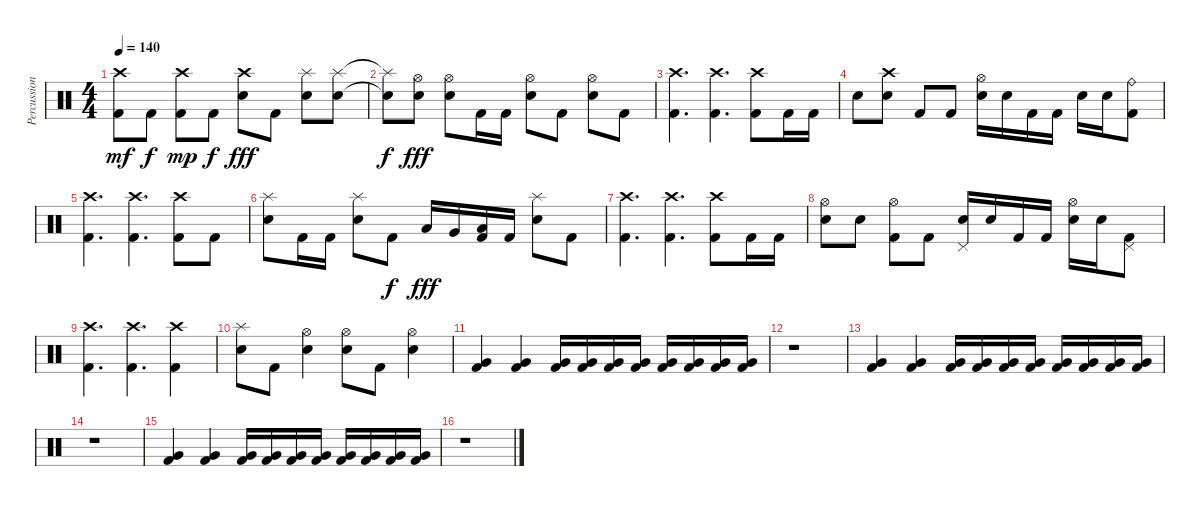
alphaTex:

\track ("Percussion" "Percussion") {instrument percussion}
\staff {score}
\articulation defaults
\ts (4 4)
\tempo 140
\clef neutral
\ks c
("Crash high (hit)" "Kick (hit) 2").8{dy mf} "Kick (hit) 2".8{dy f} ("Crash high (hit)" "Kick (hit) 2").8{dy mp} "Kick (hit) 2".8{dy f} ("Crash high (hit)" "Electric Snare (hit)").8{dy fff} "Kick (hit) 2".8 ("Splash (hit)" "Electric Snare (hit)").8 ("Splash (hit)" "Electric Snare (hit)").8 |
("Splash (hit)"{t} "Electric Snare (hit)"{t}).8{dy f} ("Hi-Hat (open)" "Electric Snare (hit)").8{dy fff} ("Hi-Hat (open)" "Electric Snare (hit)").8 "Kick (hit) 2".16 "Kick (hit) 2".16 ("Hi-Hat (open)" "Electric Snare (hit)").8 "Kick (hit) 2".8 ("Hi-Hat (open)" "Electric Snare (hit)").8 "Kick (hit) 2".8 |
("Crash high (hit)" "Kick (hit) 2").4{d} ("Crash high (hit)" "Kick (hit) 2").4{d} ("Crash high (hit)" "Kick (hit) 2").8 "Kick (hit) 2".16 "Kick (hit) 2".16 |
"Electric Snare (hit)".8 ("Crash high (hit)" "Electric Snare (hit)").8 "Kick (hit) 2".8 "Kick (hit) 2".8 ("Hi-Hat (open)" "Electric Snare (hit)").16 "Electric Snare (hit)".16 "Kick (hit) 2".16 "Kick (hit) 2".16 "Electric Snare (hit)".16 "Electric Snare (hit)".16 ("Ride (bell)" "Kick (hit) 2").8 |
("Crash high (hit)" "Kick (hit) 2").4{d} ("Crash high (hit)" "Kick (hit) 2").4{d} ("Crash high (hit)" "Kick (hit) 2").8 "Kick (hit) 2".8 |
("Splash (hit)" "Electric Snare (hit)").8 "Kick (hit) 2".16 "Kick (hit) 2".16 ("Splash (hit)" "Electric Snare (hit)").8 "Kick (hit) 2".8{dy f} "Low Tom (hit)".16{dy fff} "Very Low Tom (hit)".16 ("Low Floor Tom (hit)" "Kick (hit) 2").16 "Kick (hit) 2".16 ("Splash (hit)" "Electric Snare (hit)").8 "Kick (hit) 2".8 |
("Crash high (hit)" "Kick (hit) 2").4{d} ("Crash high (hit)" "Kick (hit) 2").4{d} ("Crash high (hit)" "Kick (hit) 2").8 "Kick (hit) 2".16 "Kick (hit) 2".16 |
("Hi-Hat (open)" "Electric Snare (hit)").8 "Electric Snare (hit)".8 ("Hi-Hat (open)" "Kick (hit) 2").8 "Kick (hit) 2".8 ("Pedal Hi-Hat (hit)" "Electric Snare (hit)").16 "Electric Snare (hit)".16 "Kick (hit) 2".16 "Kick (hit) 2".16 ("Hi-Hat (open)" "Electric Snare (hit)").16 "Electric Snare (hit)".16 ("Pedal Hi-Hat (hit)" "Kick (hit) 2").8 |
("Crash high (hit)" "Kick (hit) 2").4{d} ("Crash high (hit)" "Kick (hit) 2").4{d} ("Crash high (hit)" "Kick (hit) 2").4 |
("Splash (hit)" "Electric Snare (hit)").8 "Kick (hit) 2".8 ("Hi-Hat (open)" "Electric Snare (hit)").4 ("Hi-Hat (open)" "Electric Snare (hit)").8 "Kick (hit) 2".8 ("Hi-Hat (open)" "Electric Snare (hit)").4 |
("Very Low Tom (hit)" "Kick (hit) 2").4 ("Very Low Tom (hit)" "Kick (hit) 2").4 ("Very Low Tom (hit)" "Kick (hit) 2").16 ("Very Low Tom (hit)" "Kick (hit) 2").16 ("Very Low Tom (hit)" "Kick (hit) 2").16 ("Very Low Tom (hit)" "Kick (hit) 2").16 ("Very Low Tom (hit)" "Kick (hit) 2").16 ("Very Low Tom (hit)" "Kick (hit) 2").16 ("Very Low Tom (hit)" "Kick (hit) 2").16 ("Very Low Tom (hit)" "Kick (hit) 2").16 |
r.1 |
("Very Low Tom (hit)" "Kick (hit) 2").4 ("Very Low Tom (hit)" "Kick (hit) 2").4 ("Very Low Tom (hit)" "Kick (hit) 2").16 ("Very Low Tom (hit)" "Kick (hit) 2").16 ("Very Low Tom (hit)" "Kick (hit) 2").16 ("Very Low Tom (hit)" "Kick (hit) 2").16 ("Very Low Tom (hit)" "Kick (hit) 2").16 ("Very Low Tom (hit)" "Kick (hit) 2").16 ("Very Low Tom (hit)" "Kick (hit) 2").16 ("Very Low Tom (hit)" "Kick (hit) 2").16 |
r.1 |
("Very Low Tom (hit)" "Kick (hit) 2").4 ("Very Low Tom (hit)" "Kick (hit) 2").4 ("Very Low Tom (hit)" "Kick (hit) 2").16 ("Very Low Tom (hit)" "Kick (hit) 2").16 ("Very Low Tom (hit)" "Kick (hit) 2").16 ("Very Low Tom (hit)" "Kick (hit) 2").16 ("Very Low Tom (hit)" "Kick (hit) 2").16 ("Very Low Tom (hit)" "Kick (hit) 2").16 ("Very Low Tom (hit)" "Kick (hit) 2").16 ("Very Low Tom (hit)" "Kick (hit) 2").16 |
r.1
